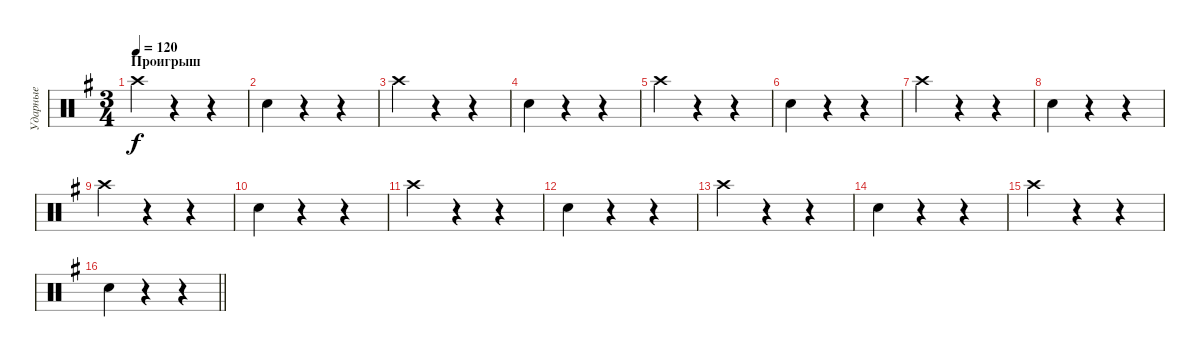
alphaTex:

\track ("Ударные" "Ударные") {instrument percussion}
\staff {score}
\articulation defaults
\ts (3 4)
\section ("" "Проигрыш")
\tempo 120
\clef neutral
\ks g "Crash high (hit)".4{dy f}
r.4 r.4 |
"Snare (hit) 2".4 r.4 r.4 |
"Crash high (hit)".4 r.4 r.4 |
"Snare (hit) 2".4 r.4 r.4 |
"Crash high (hit)".4 r.4 r.4 |
"Snare (hit) 2".4 r.4 r.4 |
"Crash high (hit)".4 r.4 r.4 |
"Snare (hit) 2".4 r.4 r.4 |
"Crash high (hit)".4 r.4 r.4 |
"Snare (hit) 2".4 r.4 r.4 |
"Crash high (hit)".4 r.4 r.4 |
"Snare (hit) 2".4 r.4 r.4 |
"Crash high (hit)".4 r.4 r.4 |
"Snare (hit) 2".4 r.4 r.4 |
"Crash high (hit)".4 r.4 r.4 |
\barLineRight lightlight "Snare (hit) 2".4
r.4 r.4
